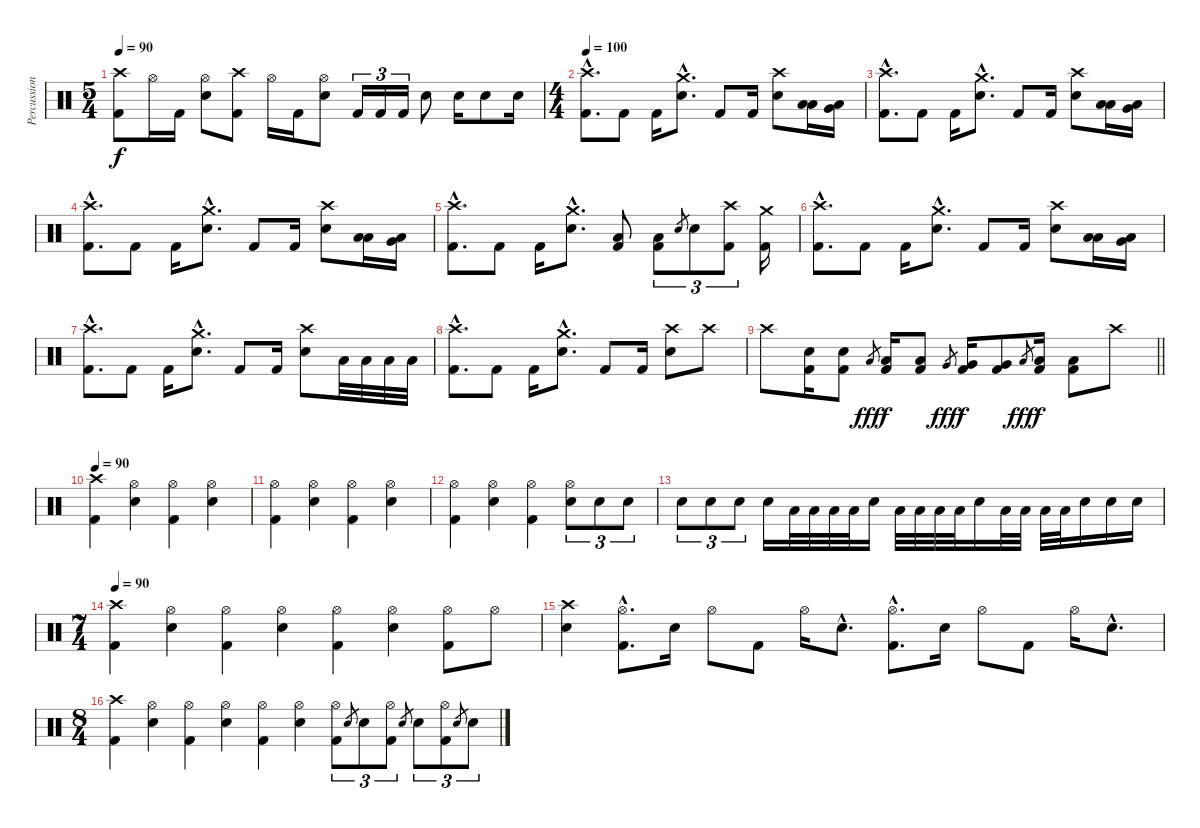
\track ("Percussion" "Percussion") {instrument percussion}
\staff {score}
\articulation defaults
\ts (5 4)
\tempo 90
\clef neutral
\ks c
("Crash high (hit)" "Kick (hit) 2").8{dy f} "Hi-Hat (open)".16 "Kick (hit) 2".16 ("Hi-Hat (open)" "Electric Snare (hit)").8 ("Crash high (hit)" "Kick (hit) 2").8 "Hi-Hat (open)".16 "Kick (hit) 2".16 ("Hi-Hat (open)" "Electric Snare (hit)").8 "Kick (hit) 2".16{tu (3 2)} "Kick (hit) 2".16{tu (3 2)} "Kick (hit) 2".16{tu (3 2)} "Electric Snare (hit)".8 "Electric Snare (hit)".16 "Electric Snare (hit)".8 "Electric Snare (hit)".16 |
\ts (4 4)
\tempo 100
("Crash high (hit)"{hac} "Kick (hit) 2"{hac}).8{d} "Kick (hit) 2".8 "Kick (hit) 2".16 ("Crash medium (hit)"{hac} "Electric Snare (hit)"{hac}).8{d} "Kick (hit) 2".8 "Kick (hit) 2".16 ("Crash high (hit)" "Electric Snare (hit)").8 ("Low Tom (hit)" "Low Floor Tom (hit)").16 ("Very Low Tom (hit)" "Low Floor Tom (hit)").16 |
("Crash high (hit)"{hac} "Kick (hit) 2"{hac}).8{d} "Kick (hit) 2".8 "Kick (hit) 2".16 ("Crash medium (hit)"{hac} "Electric Snare (hit)"{hac}).8{d} "Kick (hit) 2".8 "Kick (hit) 2".16 ("Crash high (hit)" "Electric Snare (hit)").8 ("Low Tom (hit)" "Low Floor Tom (hit)").16 ("Very Low Tom (hit)" "Low Floor Tom (hit)").16 |
("Crash high (hit)"{hac} "Kick (hit) 2"{hac}).8{d} "Kick (hit) 2".8 "Kick (hit) 2".16 ("Crash medium (hit)"{hac} "Electric Snare (hit)"{hac}).8{d} "Kick (hit) 2".8 "Kick (hit) 2".16 ("Crash high (hit)" "Electric Snare (hit)").8 ("Low Tom (hit)" "Low Floor Tom (hit)").16 ("Very Low Tom (hit)" "Low Floor Tom (hit)").16 |
("Crash high (hit)"{hac} "Kick (hit) 2"{hac}).8{d} "Kick (hit) 2".8 "Kick (hit) 2".16 ("Crash medium (hit)"{hac} "Electric Snare (hit)"{hac}).8{d} ("Low Tom (hit)" "Kick (hit) 2").8 ("Low Tom (hit)" "Kick (hit) 2").8{tu (3 2)} "Electric Snare (hit)".8{gr} "Electric Snare (hit)".8{tu (3 2)} ("Crash high (hit)" "Kick (hit) 2").8{tu (3 2)} ("Crash medium (hit)" "Kick (hit) 2").16 |
("Crash high (hit)"{hac} "Kick (hit) 2"{hac}).8{d} "Kick (hit) 2".8 "Kick (hit) 2".16 ("Crash medium (hit)"{hac} "Electric Snare (hit)"{hac}).8{d} "Kick (hit) 2".8 "Kick (hit) 2".16 ("Crash high (hit)" "Electric Snare (hit)").8 ("Low Tom (hit)" "Low Floor Tom (hit)").16 ("Very Low Tom (hit)" "Low Floor Tom (hit)").16 |
("Crash high (hit)"{hac} "Kick (hit) 2"{hac}).8{d} "Kick (hit) 2".8 "Kick (hit) 2".16 ("Crash medium (hit)"{hac} "Electric Snare (hit)"{hac}).8{d} "Kick (hit) 2".8 "Kick (hit) 2".16 ("Crash high (hit)" "Electric Snare (hit)").8 "Low Tom (hit)".32 "Low Tom (hit)".32 "Low Tom (hit)".32 "Low Tom (hit)".32 |
("Crash high (hit)"{hac} "Kick (hit) 2"{hac}).8{d} "Kick (hit) 2".8 "Kick (hit) 2".16 ("Crash medium (hit)"{hac} "Electric Snare (hit)"{hac}).8{d} "Kick (hit) 2".8 "Kick (hit) 2".16 ("Crash high (hit)" "Electric Snare (hit)").8 "Crash high (hit)".8 |
\barLineRight lightlight "Crash high (hit)".8
("Electric Snare (hit)" "Kick (hit) 2").16 ("Electric Snare (hit)" "Kick (hit) 2").8 "Low Tom (hit)".8{gr dy fff} ("Low Tom (hit)" "Kick (hit) 2").16{dy f} ("Low Tom (hit)" "Kick (hit) 2").8 "Very Low Tom (hit)".8{gr dy fff} ("Very Low Tom (hit)" "Kick (hit) 2").16{dy f} ("Very Low Tom (hit)" "Kick (hit) 2").8 "Low Floor Tom (hit)".8{gr dy fff} ("Low Floor Tom (hit)" "Kick (hit) 2").16{dy f} ("Low Floor Tom (hit)" "Kick (hit) 2").8 "Crash high (hit)".8 |
\tempo 90
("Crash high (hit)" "Kick (hit) 2").4 ("Hi-Hat (open)" "Electric Snare (hit)").4 ("Hi-Hat (open)" "Kick (hit) 2").4 ("Hi-Hat (open)" "Electric Snare (hit)").4 |
("Hi-Hat (open)" "Kick (hit) 2").4 ("Hi-Hat (open)" "Electric Snare (hit)").4 ("Hi-Hat (open)" "Kick (hit) 2").4 ("Hi-Hat (open)" "Electric Snare (hit)").4 |
("Hi-Hat (open)" "Kick (hit) 2").4 ("Hi-Hat (open)" "Electric Snare (hit)").4 ("Hi-Hat (open)" "Kick (hit) 2").4 ("Hi-Hat (open)" "Electric Snare (hit)").8{tu (3 2)} "Electric Snare (hit)".8{tu (3 2)} "Electric Snare (hit)".8{tu (3 2)} |
"Electric Snare (hit)".8{tu (3 2)} "Electric Snare (hit)".8{tu (3 2)} "Electric Snare (hit)".8{tu (3 2)} "Electric Snare (hit)".16 "Low Tom (hit)".32 "Low Tom (hit)".32 "Low Tom (hit)".32 "Low Tom (hit)".32 "Electric Snare (hit)".16 "Low Tom (hit)".32 "Low Tom (hit)".32 "Low Tom (hit)".32 "Low Tom (hit)".32 "Electric Snare (hit)".16 "Low Tom (hit)".32 "Low Tom (hit)".32 "Low Tom (hit)".32 "Low Tom (hit)".32 "Electric Snare (hit)".16 "Electric Snare (hit)".16 "Electric Snare (hit)".16 |
\ts (7 4)
\tempo 90
("Crash high (hit)" "Kick (hit) 2").4 ("Hi-Hat (open)" "Electric Snare (hit)").4 ("Hi-Hat (open)" "Kick (hit) 2").4 ("Hi-Hat (open)" "Electric Snare (hit)").4 ("Hi-Hat (open)" "Kick (hit) 2").4 ("Hi-Hat (open)" "Electric Snare (hit)").4 ("Hi-Hat (open)" "Kick (hit) 2").8 "Hi-Hat (open)".8 |
("Crash high (hit)" "Electric Snare (hit)").4 ("Hi-Hat (open)"{hac} "Kick (hit) 2"{hac}).8{d} "Electric Snare (hit)".16 "Hi-Hat (open)".8 "Kick (hit) 2".8 "Hi-Hat (open)".16 "Electric Snare (hit)"{hac}.8{d} ("Hi-Hat (open)"{hac} "Kick (hit) 2"{hac}).8{d} "Electric Snare (hit)".16 "Hi-Hat (open)".8 "Kick (hit) 2".8 "Hi-Hat (open)".16 "Electric Snare (hit)"{hac}.8{d} |
\ts (8 4)
("Crash high (hit)" "Kick (hit) 2").4 ("Hi-Hat (open)" "Electric Snare (hit)").4 ("Hi-Hat (open)" "Kick (hit) 2").4 ("Hi-Hat (open)" "Electric Snare (hit)").4 ("Hi-Hat (open)" "Kick (hit) 2").4 ("Hi-Hat (open)" "Electric Snare (hit)").4 ("Hi-Hat (open)" "Kick (hit) 2").8{tu (3 2)} "Electric Snare (hit)".8{gr} "Electric Snare (hit)".8{tu (3 2)} ("Hi-Hat (open)" "Kick (hit) 2").8{tu (3 2)} "Electric Snare (hit)".8{gr} "Electric Snare (hit)".8{tu (3 2)} ("Hi-Hat (open)" "Kick (hit) 2").8{tu (3 2)} "Electric Snare (hit)".8{gr} "Electric Snare (hit)".8{tu (3 2)}
